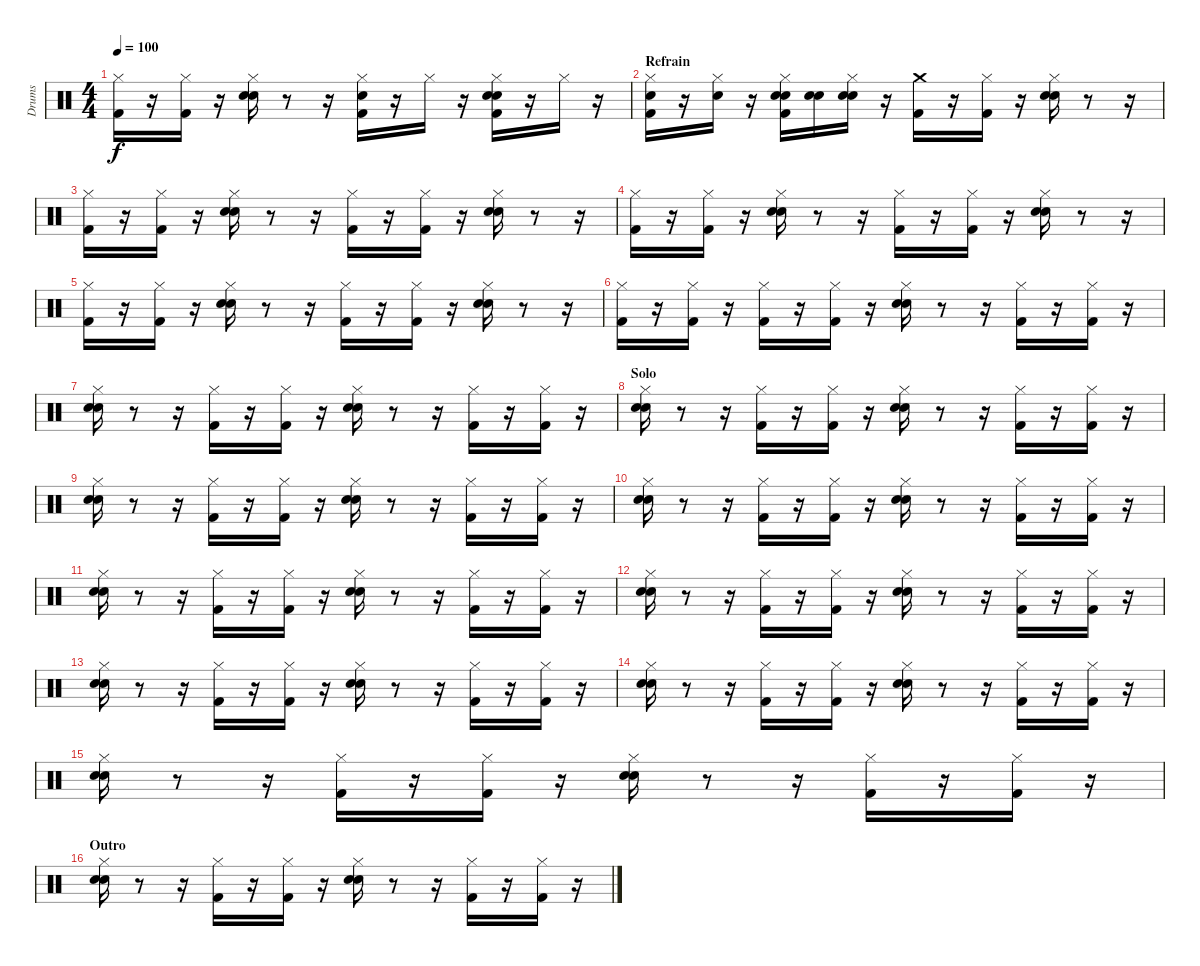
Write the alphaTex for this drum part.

\track ("Drums" "Drums") {instrument percussion}
\staff {score}
\articulation defaults
\ts (4 4)
\tempo 100
\clef neutral
\ks c
("Hi-Hat (closed)" "Kick (hit) 2").16{dy f} r.16 ("Hi-Hat (closed)" "Kick (hit) 2").16 r.16 ("Snare (hit) 2" "Hand Clap (hit)" "Hi-Hat (closed)").16 r.8 r.16 ("Kick (hit) 2" "Snare (hit) 2" "Hi-Hat (closed)").16 r.16 "Hi-Hat (closed)".16 r.16 ("Hi-Hat (closed)" "Hand Clap (hit)" "Snare (hit) 2" "Kick (hit) 2").16 r.16 "Hi-Hat (closed)".16 r.16 |
\section ("" "Refrain")
("Kick (hit) 2" "Hi-Hat (closed)" "Snare (hit) 2").16 r.16 ("Hi-Hat (closed)" "Snare (hit) 2").16 r.16 ("Kick (hit) 2" "Hi-Hat (closed)" "Snare (hit) 2" "Hand Clap (hit)").16 ("Snare (hit)" "Snare (hit) 2").16 ("Snare (hit)" "Snare (hit) 2" "Hi-Hat (closed)").16 r.16 ("Kick (hit) 2" "Crash medium (hit)").16 r.16 ("Hi-Hat (closed)" "Kick (hit) 2").16 r.16 ("Hi-Hat (closed)" "Snare (hit) 2" "Hand Clap (hit)").16 r.8 r.16 |
("Kick (hit) 2" "Hi-Hat (closed)").16 r.16 ("Hi-Hat (closed)" "Kick (hit) 2").16 r.16 ("Hand Clap (hit)" "Snare (hit) 2" "Hi-Hat (closed)").16 r.8 r.16 ("Kick (hit) 2" "Hi-Hat (closed)").16 r.16 ("Hi-Hat (closed)" "Kick (hit) 2").16 r.16 ("Hand Clap (hit)" "Snare (hit) 2" "Hi-Hat (closed)").16 r.8 r.16 |
("Hi-Hat (closed)" "Kick (hit) 2").16 r.16 ("Kick (hit) 2" "Hi-Hat (closed)").16 r.16 ("Snare (hit) 2" "Hi-Hat (closed)" "Hand Clap (hit)").16 r.8 r.16 ("Kick (hit) 2" "Hi-Hat (closed)").16 r.16 ("Kick (hit) 2" "Hi-Hat (closed)").16 r.16 ("Hi-Hat (closed)" "Hand Clap (hit)" "Snare (hit) 2").16 r.8 r.16 |
("Kick (hit) 2" "Hi-Hat (closed)").16 r.16 ("Kick (hit) 2" "Hi-Hat (closed)").16 r.16 ("Hand Clap (hit)" "Snare (hit) 2" "Hi-Hat (closed)").16 r.8 r.16 ("Kick (hit) 2" "Hi-Hat (closed)").16 r.16 ("Hi-Hat (closed)" "Kick (hit) 2").16 r.16 ("Hi-Hat (closed)" "Snare (hit) 2" "Hand Clap (hit)").16 r.8 r.16 |
("Kick (hit) 2" "Hi-Hat (closed)").16 r.16 ("Hi-Hat (closed)" "Kick (hit) 2").16 r.16 ("Kick (hit) 2" "Hi-Hat (closed)").16 r.16 ("Hi-Hat (closed)" "Kick (hit) 2").16 r.16 ("Hand Clap (hit)" "Snare (hit) 2" "Hi-Hat (closed)").16 r.8 r.16 ("Kick (hit) 2" "Hi-Hat (closed)").16 r.16 ("Kick (hit) 2" "Hi-Hat (closed)").16 r.16 |
("Snare (hit) 2" "Hi-Hat (closed)" "Hand Clap (hit)").16 r.8 r.16 ("Hi-Hat (closed)" "Kick (hit) 2").16 r.16 ("Hi-Hat (closed)" "Kick (hit) 2").16 r.16 ("Hand Clap (hit)" "Hi-Hat (closed)" "Snare (hit) 2").16 r.8 r.16 ("Hi-Hat (closed)" "Kick (hit) 2").16 r.16 ("Kick (hit) 2" "Hi-Hat (closed)").16 r.16 |
\section ("" "Solo")
("Snare (hit) 2" "Hand Clap (hit)" "Hi-Hat (closed)").16 r.8 r.16 ("Hi-Hat (closed)" "Kick (hit) 2").16 r.16 ("Hi-Hat (closed)" "Kick (hit) 2").16 r.16 ("Hi-Hat (closed)" "Hand Clap (hit)" "Snare (hit) 2").16 r.8 r.16 ("Hi-Hat (closed)" "Kick (hit) 2").16 r.16 ("Hi-Hat (closed)" "Kick (hit) 2").16 r.16 |
("Hand Clap (hit)" "Hi-Hat (closed)" "Snare (hit) 2").16 r.8 r.16 ("Kick (hit) 2" "Hi-Hat (closed)").16 r.16 ("Hi-Hat (closed)" "Kick (hit) 2").16 r.16 ("Hi-Hat (closed)" "Snare (hit) 2" "Hand Clap (hit)").16 r.8 r.16 ("Hi-Hat (closed)" "Kick (hit) 2").16 r.16 ("Kick (hit) 2" "Hi-Hat (closed)").16 r.16 |
("Hand Clap (hit)" "Hi-Hat (closed)" "Snare (hit) 2").16 r.8 r.16 ("Kick (hit) 2" "Hi-Hat (closed)").16 r.16 ("Kick (hit) 2" "Hi-Hat (closed)").16 r.16 ("Snare (hit) 2" "Hand Clap (hit)" "Hi-Hat (closed)").16 r.8 r.16 ("Hi-Hat (closed)" "Kick (hit) 2").16 r.16 ("Hi-Hat (closed)" "Kick (hit) 2").16 r.16 |
("Snare (hit) 2" "Hi-Hat (closed)" "Hand Clap (hit)").16 r.8 r.16 ("Kick (hit) 2" "Hi-Hat (closed)").16 r.16 ("Hi-Hat (closed)" "Kick (hit) 2").16 r.16 ("Snare (hit) 2" "Hand Clap (hit)" "Hi-Hat (closed)").16 r.8 r.16 ("Hi-Hat (closed)" "Kick (hit) 2").16 r.16 ("Hi-Hat (closed)" "Kick (hit) 2").16 r.16 |
("Hand Clap (hit)" "Snare (hit) 2" "Hi-Hat (closed)").16 r.8 r.16 ("Kick (hit) 2" "Hi-Hat (closed)").16 r.16 ("Kick (hit) 2" "Hi-Hat (closed)").16 r.16 ("Snare (hit) 2" "Hi-Hat (closed)" "Hand Clap (hit)").16 r.8 r.16 ("Kick (hit) 2" "Hi-Hat (closed)").16 r.16 ("Hi-Hat (closed)" "Kick (hit) 2").16 r.16 |
("Snare (hit) 2" "Hi-Hat (closed)" "Hand Clap (hit)").16 r.8 r.16 ("Kick (hit) 2" "Hi-Hat (closed)").16 r.16 ("Kick (hit) 2" "Hi-Hat (closed)").16 r.16 ("Hi-Hat (closed)" "Snare (hit) 2" "Hand Clap (hit)").16 r.8 r.16 ("Hi-Hat (closed)" "Kick (hit) 2").16 r.16 ("Hi-Hat (closed)" "Kick (hit) 2").16 r.16 |
("Hi-Hat (closed)" "Hand Clap (hit)" "Snare (hit) 2").16 r.8 r.16 ("Hi-Hat (closed)" "Kick (hit) 2").16 r.16 ("Kick (hit) 2" "Hi-Hat (closed)").16 r.16 ("Hi-Hat (closed)" "Snare (hit) 2" "Hand Clap (hit)").16 r.8 r.16 ("Kick (hit) 2" "Hi-Hat (closed)").16 r.16 ("Hi-Hat (closed)" "Kick (hit) 2").16 r.16 |
("Snare (hit) 2" "Hand Clap (hit)" "Hi-Hat (closed)").16 r.8 r.16 ("Kick (hit) 2" "Hi-Hat (closed)").16 r.16 ("Kick (hit) 2" "Hi-Hat (closed)").16 r.16 ("Snare (hit) 2" "Hand Clap (hit)" "Hi-Hat (closed)").16 r.8 r.16 ("Hi-Hat (closed)" "Kick (hit) 2").16 r.16 ("Kick (hit) 2" "Hi-Hat (closed)").16 r.16 |
\section ("" "Outro")
("Hi-Hat (closed)" "Snare (hit) 2" "Hand Clap (hit)").16 r.8 r.16 ("Kick (hit) 2" "Hi-Hat (closed)").16 r.16 ("Hi-Hat (closed)" "Kick (hit) 2").16 r.16 ("Hand Clap (hit)" "Hi-Hat (closed)" "Snare (hit) 2").16 r.8 r.16 ("Kick (hit) 2" "Hi-Hat (closed)").16 r.16 ("Hi-Hat (closed)" "Kick (hit) 2").16 r.16
